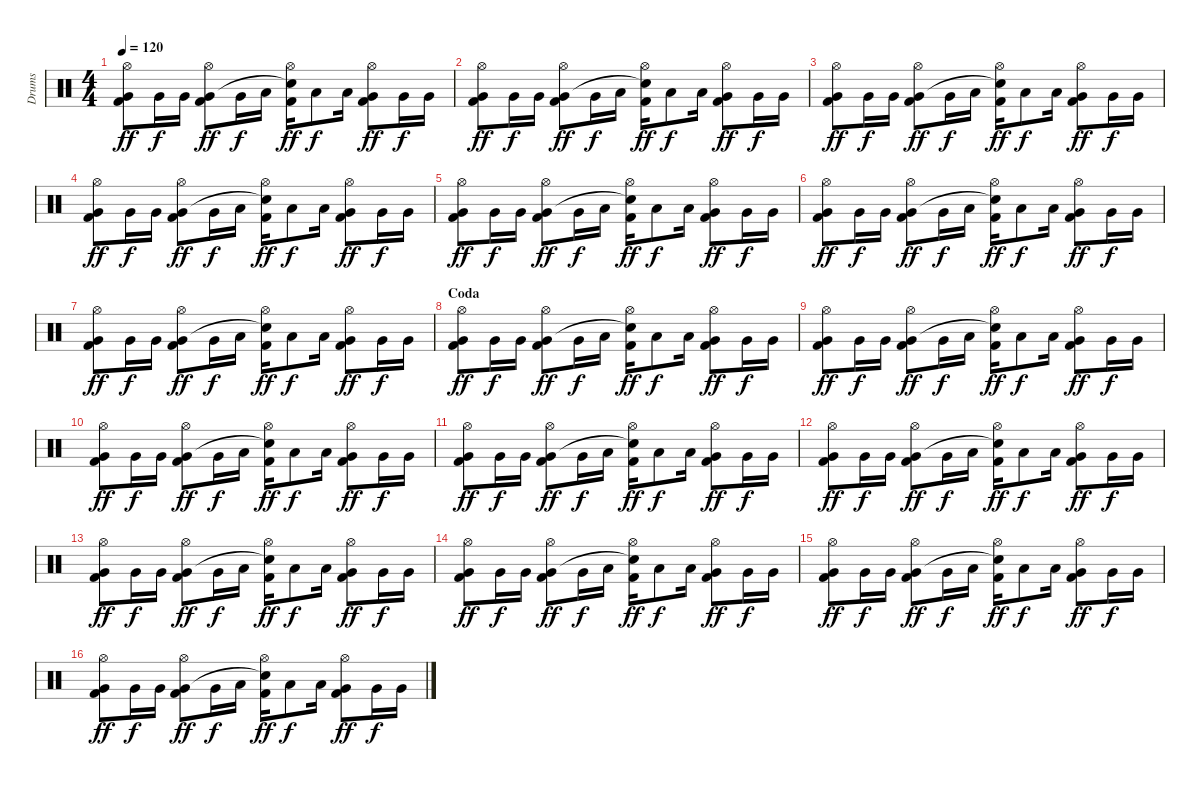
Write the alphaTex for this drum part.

\track ("Drums" "Drums") {instrument percussion}
\staff {score}
\articulation defaults
\ts (4 4)
\tempo 120
\clef neutral
\ks c
("Hi-Hat (open)" "Very Low Tom (hit)" "Kick (hit) 2").8{dy ff} "Very Low Tom (hit)".16{dy f} "Very Low Tom (hit)".16 ("Hi-Hat (open)" "Very Low Tom (hit)" "Kick (hit) 2").8{dy ff} "Very Low Tom (hit)".16{dy f} "Low Tom (hit)".16 ("Hi-Hat (open)" "Snare (hit)"{t} "Kick (hit) 2").16{dy ff} "Low Tom (hit)".8{dy f} "Low Tom (hit)".16 ("Hi-Hat (open)" "Very Low Tom (hit)" "Kick (hit) 2").8{dy ff} "Very Low Tom (hit)".16{dy f} "Very Low Tom (hit)".16 |
("Hi-Hat (open)" "Very Low Tom (hit)" "Kick (hit) 2").8{dy ff} "Very Low Tom (hit)".16{dy f} "Very Low Tom (hit)".16 ("Hi-Hat (open)" "Very Low Tom (hit)" "Kick (hit) 2").8{dy ff} "Very Low Tom (hit)".16{dy f} "Low Tom (hit)".16 ("Hi-Hat (open)" "Snare (hit)"{t} "Kick (hit) 2").16{dy ff} "Low Tom (hit)".8{dy f} "Low Tom (hit)".16 ("Hi-Hat (open)" "Very Low Tom (hit)" "Kick (hit) 2").8{dy ff} "Very Low Tom (hit)".16{dy f} "Very Low Tom (hit)".16 |
("Hi-Hat (open)" "Very Low Tom (hit)" "Kick (hit) 2").8{dy ff} "Very Low Tom (hit)".16{dy f} "Very Low Tom (hit)".16 ("Hi-Hat (open)" "Very Low Tom (hit)" "Kick (hit) 2").8{dy ff} "Very Low Tom (hit)".16{dy f} "Low Tom (hit)".16 ("Hi-Hat (open)" "Snare (hit)"{t} "Kick (hit) 2").16{dy ff} "Low Tom (hit)".8{dy f} "Low Tom (hit)".16 ("Hi-Hat (open)" "Very Low Tom (hit)" "Kick (hit) 2").8{dy ff} "Very Low Tom (hit)".16{dy f} "Very Low Tom (hit)".16 |
("Hi-Hat (open)" "Very Low Tom (hit)" "Kick (hit) 2").8{dy ff} "Very Low Tom (hit)".16{dy f} "Very Low Tom (hit)".16 ("Hi-Hat (open)" "Very Low Tom (hit)" "Kick (hit) 2").8{dy ff} "Very Low Tom (hit)".16{dy f} "Low Tom (hit)".16 ("Hi-Hat (open)" "Snare (hit)"{t} "Kick (hit) 2").16{dy ff} "Low Tom (hit)".8{dy f} "Low Tom (hit)".16 ("Hi-Hat (open)" "Very Low Tom (hit)" "Kick (hit) 2").8{dy ff} "Very Low Tom (hit)".16{dy f} "Very Low Tom (hit)".16 |
("Hi-Hat (open)" "Very Low Tom (hit)" "Kick (hit) 2").8{dy ff} "Very Low Tom (hit)".16{dy f} "Very Low Tom (hit)".16 ("Hi-Hat (open)" "Very Low Tom (hit)" "Kick (hit) 2").8{dy ff} "Very Low Tom (hit)".16{dy f} "Low Tom (hit)".16 ("Hi-Hat (open)" "Snare (hit)"{t} "Kick (hit) 2").16{dy ff} "Low Tom (hit)".8{dy f} "Low Tom (hit)".16 ("Hi-Hat (open)" "Very Low Tom (hit)" "Kick (hit) 2").8{dy ff} "Very Low Tom (hit)".16{dy f} "Very Low Tom (hit)".16 |
("Hi-Hat (open)" "Very Low Tom (hit)" "Kick (hit) 2").8{dy ff} "Very Low Tom (hit)".16{dy f} "Very Low Tom (hit)".16 ("Hi-Hat (open)" "Very Low Tom (hit)" "Kick (hit) 2").8{dy ff} "Very Low Tom (hit)".16{dy f} "Low Tom (hit)".16 ("Hi-Hat (open)" "Snare (hit)"{t} "Kick (hit) 2").16{dy ff} "Low Tom (hit)".8{dy f} "Low Tom (hit)".16 ("Hi-Hat (open)" "Very Low Tom (hit)" "Kick (hit) 2").8{dy ff} "Very Low Tom (hit)".16{dy f} "Very Low Tom (hit)".16 |
("Hi-Hat (open)" "Very Low Tom (hit)" "Kick (hit) 2").8{dy ff} "Very Low Tom (hit)".16{dy f} "Very Low Tom (hit)".16 ("Hi-Hat (open)" "Very Low Tom (hit)" "Kick (hit) 2").8{dy ff} "Very Low Tom (hit)".16{dy f} "Low Tom (hit)".16 ("Hi-Hat (open)" "Snare (hit)"{t} "Kick (hit) 2").16{dy ff} "Low Tom (hit)".8{dy f} "Low Tom (hit)".16 ("Hi-Hat (open)" "Very Low Tom (hit)" "Kick (hit) 2").8{dy ff} "Very Low Tom (hit)".16{dy f} "Very Low Tom (hit)".16 |
\section ("" "Coda")
("Hi-Hat (open)" "Very Low Tom (hit)" "Kick (hit) 2").8{dy ff} "Very Low Tom (hit)".16{dy f} "Very Low Tom (hit)".16 ("Hi-Hat (open)" "Very Low Tom (hit)" "Kick (hit) 2").8{dy ff} "Very Low Tom (hit)".16{dy f} "Low Tom (hit)".16 ("Hi-Hat (open)" "Snare (hit)"{t} "Kick (hit) 2").16{dy ff} "Low Tom (hit)".8{dy f} "Low Tom (hit)".16 ("Hi-Hat (open)" "Very Low Tom (hit)" "Kick (hit) 2").8{dy ff} "Very Low Tom (hit)".16{dy f} "Very Low Tom (hit)".16 |
("Hi-Hat (open)" "Very Low Tom (hit)" "Kick (hit) 2").8{dy ff} "Very Low Tom (hit)".16{dy f} "Very Low Tom (hit)".16 ("Hi-Hat (open)" "Very Low Tom (hit)" "Kick (hit) 2").8{dy ff} "Very Low Tom (hit)".16{dy f} "Low Tom (hit)".16 ("Hi-Hat (open)" "Snare (hit)"{t} "Kick (hit) 2").16{dy ff} "Low Tom (hit)".8{dy f} "Low Tom (hit)".16 ("Hi-Hat (open)" "Very Low Tom (hit)" "Kick (hit) 2").8{dy ff} "Very Low Tom (hit)".16{dy f} "Very Low Tom (hit)".16 |
("Hi-Hat (open)" "Very Low Tom (hit)" "Kick (hit) 2").8{dy ff} "Very Low Tom (hit)".16{dy f} "Very Low Tom (hit)".16 ("Hi-Hat (open)" "Very Low Tom (hit)" "Kick (hit) 2").8{dy ff} "Very Low Tom (hit)".16{dy f} "Low Tom (hit)".16 ("Hi-Hat (open)" "Snare (hit)"{t} "Kick (hit) 2").16{dy ff} "Low Tom (hit)".8{dy f} "Low Tom (hit)".16 ("Hi-Hat (open)" "Very Low Tom (hit)" "Kick (hit) 2").8{dy ff} "Very Low Tom (hit)".16{dy f} "Very Low Tom (hit)".16 |
("Hi-Hat (open)" "Very Low Tom (hit)" "Kick (hit) 2").8{dy ff} "Very Low Tom (hit)".16{dy f} "Very Low Tom (hit)".16 ("Hi-Hat (open)" "Very Low Tom (hit)" "Kick (hit) 2").8{dy ff} "Very Low Tom (hit)".16{dy f} "Low Tom (hit)".16 ("Hi-Hat (open)" "Snare (hit)"{t} "Kick (hit) 2").16{dy ff} "Low Tom (hit)".8{dy f} "Low Tom (hit)".16 ("Hi-Hat (open)" "Very Low Tom (hit)" "Kick (hit) 2").8{dy ff} "Very Low Tom (hit)".16{dy f} "Very Low Tom (hit)".16 |
("Hi-Hat (open)" "Very Low Tom (hit)" "Kick (hit) 2").8{dy ff} "Very Low Tom (hit)".16{dy f} "Very Low Tom (hit)".16 ("Hi-Hat (open)" "Very Low Tom (hit)" "Kick (hit) 2").8{dy ff} "Very Low Tom (hit)".16{dy f} "Low Tom (hit)".16 ("Hi-Hat (open)" "Snare (hit)"{t} "Kick (hit) 2").16{dy ff} "Low Tom (hit)".8{dy f} "Low Tom (hit)".16 ("Hi-Hat (open)" "Very Low Tom (hit)" "Kick (hit) 2").8{dy ff} "Very Low Tom (hit)".16{dy f} "Very Low Tom (hit)".16 |
("Hi-Hat (open)" "Very Low Tom (hit)" "Kick (hit) 2").8{dy ff} "Very Low Tom (hit)".16{dy f} "Very Low Tom (hit)".16 ("Hi-Hat (open)" "Very Low Tom (hit)" "Kick (hit) 2").8{dy ff} "Very Low Tom (hit)".16{dy f} "Low Tom (hit)".16 ("Hi-Hat (open)" "Snare (hit)"{t} "Kick (hit) 2").16{dy ff} "Low Tom (hit)".8{dy f} "Low Tom (hit)".16 ("Hi-Hat (open)" "Very Low Tom (hit)" "Kick (hit) 2").8{dy ff} "Very Low Tom (hit)".16{dy f} "Very Low Tom (hit)".16 |
("Hi-Hat (open)" "Very Low Tom (hit)" "Kick (hit) 2").8{dy ff} "Very Low Tom (hit)".16{dy f} "Very Low Tom (hit)".16 ("Hi-Hat (open)" "Very Low Tom (hit)" "Kick (hit) 2").8{dy ff} "Very Low Tom (hit)".16{dy f} "Low Tom (hit)".16 ("Hi-Hat (open)" "Snare (hit)"{t} "Kick (hit) 2").16{dy ff} "Low Tom (hit)".8{dy f} "Low Tom (hit)".16 ("Hi-Hat (open)" "Very Low Tom (hit)" "Kick (hit) 2").8{dy ff} "Very Low Tom (hit)".16{dy f} "Very Low Tom (hit)".16 |
("Hi-Hat (open)" "Very Low Tom (hit)" "Kick (hit) 2").8{dy ff} "Very Low Tom (hit)".16{dy f} "Very Low Tom (hit)".16 ("Hi-Hat (open)" "Very Low Tom (hit)" "Kick (hit) 2").8{dy ff} "Very Low Tom (hit)".16{dy f} "Low Tom (hit)".16 ("Hi-Hat (open)" "Snare (hit)"{t} "Kick (hit) 2").16{dy ff} "Low Tom (hit)".8{dy f} "Low Tom (hit)".16 ("Hi-Hat (open)" "Very Low Tom (hit)" "Kick (hit) 2").8{dy ff} "Very Low Tom (hit)".16{dy f} "Very Low Tom (hit)".16 |
("Hi-Hat (open)" "Very Low Tom (hit)" "Kick (hit) 2").8{dy ff} "Very Low Tom (hit)".16{dy f} "Very Low Tom (hit)".16 ("Hi-Hat (open)" "Very Low Tom (hit)" "Kick (hit) 2").8{dy ff} "Very Low Tom (hit)".16{dy f} "Low Tom (hit)".16 ("Hi-Hat (open)" "Snare (hit)"{t} "Kick (hit) 2").16{dy ff} "Low Tom (hit)".8{dy f} "Low Tom (hit)".16 ("Hi-Hat (open)" "Very Low Tom (hit)" "Kick (hit) 2").8{dy ff} "Very Low Tom (hit)".16{dy f} "Very Low Tom (hit)".16
